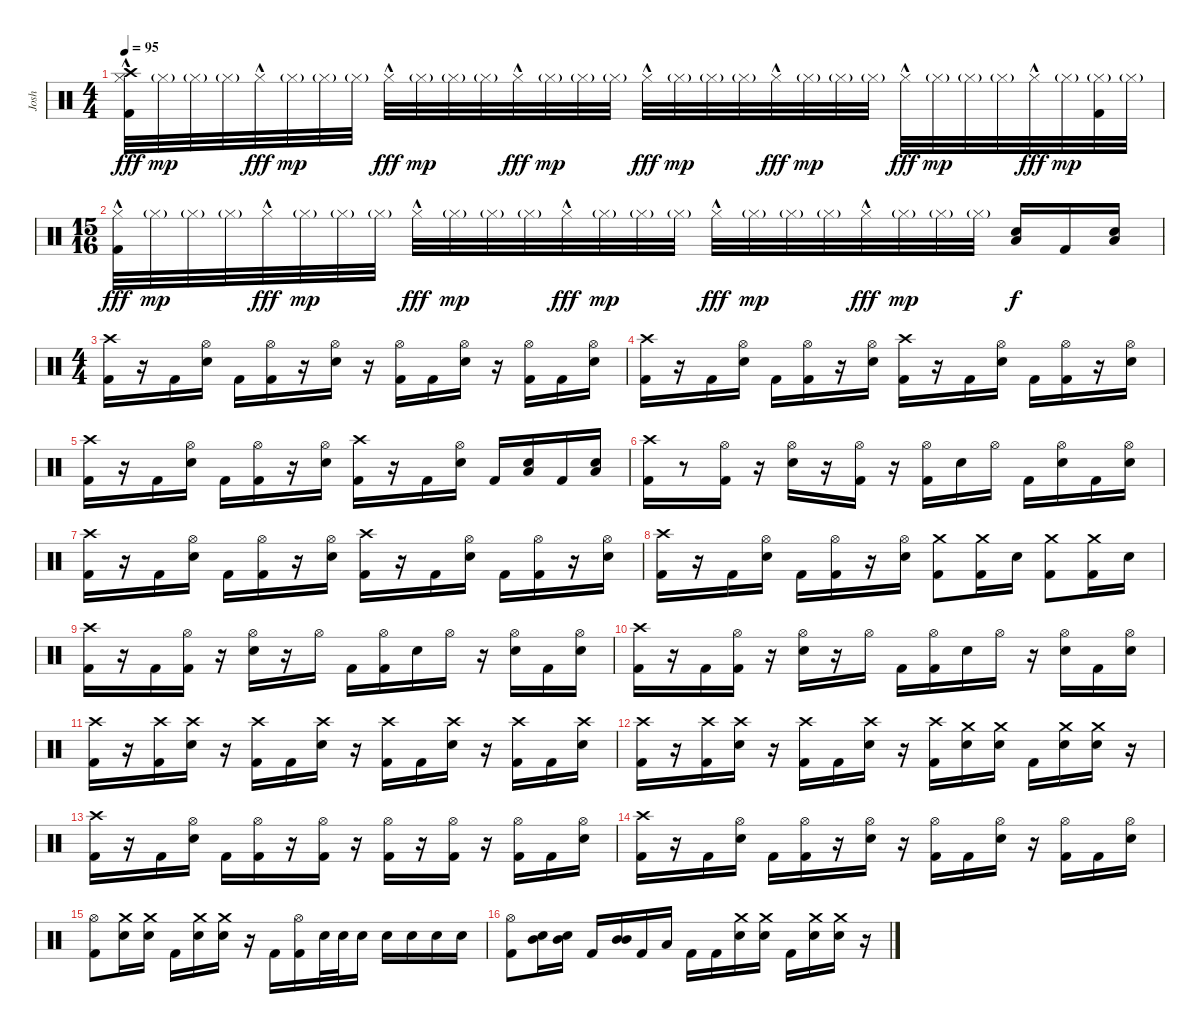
\track ("Josh" "Josh") {instrument percussion}
\staff {score}
\articulation defaults
\ts (4 4)
\tempo 95
\clef neutral
\ks c
("Crash high (hit)" "Hi-Hat (closed)"{hac} "Kick (hit) 2").32{dy fff} "Hi-Hat (closed)"{g}.32{dy mp} "Hi-Hat (closed)"{g}.32 "Hi-Hat (closed)"{g}.32 "Hi-Hat (closed)"{hac}.32{dy fff} "Hi-Hat (closed)"{g}.32{dy mp} "Hi-Hat (closed)"{g}.32 "Hi-Hat (closed)"{g}.32 "Hi-Hat (closed)"{hac}.32{dy fff} "Hi-Hat (closed)"{g}.32{dy mp} "Hi-Hat (closed)"{g}.32 "Hi-Hat (closed)"{g}.32 "Hi-Hat (closed)"{hac}.32{dy fff} "Hi-Hat (closed)"{g}.32{dy mp} "Hi-Hat (closed)"{g}.32 "Hi-Hat (closed)"{g}.32 "Hi-Hat (closed)"{hac}.32{dy fff} "Hi-Hat (closed)"{g}.32{dy mp} "Hi-Hat (closed)"{g}.32 "Hi-Hat (closed)"{g}.32 "Hi-Hat (closed)"{hac}.32{dy fff} "Hi-Hat (closed)"{g}.32{dy mp} "Hi-Hat (closed)"{g}.32 "Hi-Hat (closed)"{g}.32 "Hi-Hat (closed)"{hac}.32{dy fff} "Hi-Hat (closed)"{g}.32{dy mp} "Hi-Hat (closed)"{g}.32 "Hi-Hat (closed)"{g}.32 "Hi-Hat (closed)"{hac}.32{dy fff} "Hi-Hat (closed)"{g}.32{dy mp} ("Hi-Hat (closed)"{g} "Kick (hit) 2").32 "Hi-Hat (closed)"{g}.32 |
\ts (15 16)
("Hi-Hat (closed)"{hac} "Kick (hit) 2").32{dy fff} "Hi-Hat (closed)"{g}.32{dy mp} "Hi-Hat (closed)"{g}.32 "Hi-Hat (closed)"{g}.32 "Hi-Hat (closed)"{hac}.32{dy fff} "Hi-Hat (closed)"{g}.32{dy mp} "Hi-Hat (closed)"{g}.32 "Hi-Hat (closed)"{g}.32 "Hi-Hat (closed)"{hac}.32{dy fff} "Hi-Hat (closed)"{g}.32{dy mp} "Hi-Hat (closed)"{g}.32 "Hi-Hat (closed)"{g}.32 "Hi-Hat (closed)"{hac}.32{dy fff} "Hi-Hat (closed)"{g}.32{dy mp} "Hi-Hat (closed)"{g}.32 "Hi-Hat (closed)"{g}.32 "Hi-Hat (closed)"{hac}.32{dy fff} "Hi-Hat (closed)"{g}.32{dy mp} "Hi-Hat (closed)"{g}.32 "Hi-Hat (closed)"{g}.32 "Hi-Hat (closed)"{hac}.32{dy fff} "Hi-Hat (closed)"{g}.32{dy mp} "Hi-Hat (closed)"{g}.32 "Hi-Hat (closed)"{g}.32 ("Snare (hit) 2" "Low Tom (hit)").16{dy f} "Kick (hit) 2".16 ("Snare (hit) 2" "Low Tom (hit)").16 |
\ts (4 4)
("Crash high (hit)" "Kick (hit) 2").16 r.16 "Kick (hit) 2".16 ("Hi-Hat (open)" "Snare (hit) 2").16 "Kick (hit) 2".16 ("Hi-Hat (open)" "Kick (hit) 2").16 r.16 ("Hi-Hat (open)" "Snare (hit) 2").16 r.16 ("Hi-Hat (open)" "Kick (hit) 2").16 "Kick (hit) 2".16 ("Hi-Hat (open)" "Snare (hit) 2").16 r.16 ("Hi-Hat (open)" "Kick (hit) 2").16 "Kick (hit) 2".16 ("Hi-Hat (open)" "Snare (hit) 2").16 |
("Crash high (hit)" "Kick (hit) 2").16 r.16 "Kick (hit) 2".16 ("Hi-Hat (open)" "Snare (hit) 2").16 "Kick (hit) 2".16 ("Hi-Hat (open)" "Kick (hit) 2").16 r.16 ("Hi-Hat (open)" "Snare (hit) 2").16 ("Crash high (hit)" "Kick (hit) 2").16 r.16 "Kick (hit) 2".16 ("Hi-Hat (open)" "Snare (hit) 2").16 "Kick (hit) 2".16 ("Hi-Hat (open)" "Kick (hit) 2").16 r.16 ("Hi-Hat (open)" "Snare (hit) 2").16 |
("Crash high (hit)" "Kick (hit) 2").16 r.16 "Kick (hit) 2".16 ("Hi-Hat (open)" "Snare (hit) 2").16 "Kick (hit) 2".16 ("Hi-Hat (open)" "Kick (hit) 2").16 r.16 ("Hi-Hat (open)" "Snare (hit) 2").16 ("Crash high (hit)" "Kick (hit) 2").16 r.16 "Kick (hit) 2".16 ("Hi-Hat (open)" "Snare (hit) 2").16 "Kick (hit) 2".16 ("Low Tom (hit)" "Snare (hit) 2").16 "Kick (hit) 2".16 ("Low Tom (hit)" "Snare (hit) 2").16 |
("Crash high (hit)" "Kick (hit) 2").16 r.8 ("Hi-Hat (open)" "Kick (hit) 2").16 r.16 ("Hi-Hat (open)" "Snare (hit) 2").16 r.16 ("Hi-Hat (open)" "Kick (hit) 2").16 r.16 ("Hi-Hat (open)" "Kick (hit) 2").16 "Snare (hit) 2".16 "Hi-Hat (open)".16 "Kick (hit) 2".16 ("Hi-Hat (open)" "Snare (hit) 2").16 "Kick (hit) 2".16 ("Hi-Hat (open)" "Snare (hit) 2").16 |
("Crash high (hit)" "Kick (hit) 2").16 r.16 "Kick (hit) 2".16 ("Hi-Hat (open)" "Snare (hit) 2").16 "Kick (hit) 2".16 ("Hi-Hat (open)" "Kick (hit) 2").16 r.16 ("Hi-Hat (open)" "Snare (hit) 2").16 ("Crash high (hit)" "Kick (hit) 2").16 r.16 "Kick (hit) 2".16 ("Hi-Hat (open)" "Snare (hit) 2").16 "Kick (hit) 2".16 ("Hi-Hat (open)" "Kick (hit) 2").16 r.16 ("Hi-Hat (open)" "Snare (hit) 2").16 |
("Crash high (hit)" "Kick (hit) 2").16 r.16 "Kick (hit) 2".16 ("Hi-Hat (open)" "Snare (hit) 2").16 "Kick (hit) 2".16 ("Hi-Hat (open)" "Kick (hit) 2").16 r.16 ("Hi-Hat (open)" "Snare (hit) 2").16 ("Crash medium (hit)" "Kick (hit) 2").8 ("Crash medium (hit)" "Kick (hit) 2").16 "Snare (hit) 2".16 ("Crash medium (hit)" "Kick (hit) 2").8 ("Crash medium (hit)" "Kick (hit) 2").16 "Snare (hit) 2".16 |
("Crash high (hit)" "Kick (hit) 2").16 r.16 "Kick (hit) 2".16 ("Hi-Hat (open)" "Kick (hit) 2").16 r.16 ("Hi-Hat (open)" "Snare (hit) 2").16 r.16 "Hi-Hat (open)".16 "Kick (hit) 2".16 ("Hi-Hat (open)" "Kick (hit) 2").16 "Snare (hit) 2".16 "Hi-Hat (open)".16 r.16 ("Hi-Hat (open)" "Snare (hit) 2").16 "Kick (hit) 2".16 ("Hi-Hat (open)" "Snare (hit) 2").16 |
("Crash high (hit)" "Kick (hit) 2").16 r.16 "Kick (hit) 2".16 ("Hi-Hat (open)" "Kick (hit) 2").16 r.16 ("Hi-Hat (open)" "Snare (hit) 2").16 r.16 "Hi-Hat (open)".16 "Kick (hit) 2".16 ("Hi-Hat (open)" "Kick (hit) 2").16 "Snare (hit) 2".16 "Hi-Hat (open)".16 r.16 ("Hi-Hat (open)" "Snare (hit) 2").16 "Kick (hit) 2".16 ("Hi-Hat (open)" "Snare (hit) 2").16 |
("Crash high (hit)" "Kick (hit) 2").16 r.16 ("Crash high (hit)" "Kick (hit) 2").16 ("Crash high (hit)" "Snare (hit) 2").16 r.16 ("Crash high (hit)" "Kick (hit) 2").16 "Kick (hit) 2".16 ("Crash high (hit)" "Snare (hit) 2").16 r.16 ("Crash high (hit)" "Kick (hit) 2").16 "Kick (hit) 2".16 ("Crash high (hit)" "Snare (hit) 2").16 r.16 ("Crash high (hit)" "Kick (hit) 2").16 "Kick (hit) 2".16 ("Crash high (hit)" "Snare (hit) 2").16 |
("Crash high (hit)" "Kick (hit) 2").16 r.16 ("Crash high (hit)" "Kick (hit) 2").16 ("Crash high (hit)" "Snare (hit) 2").16 r.16 ("Crash high (hit)" "Kick (hit) 2").16 "Kick (hit) 2".16 ("Crash high (hit)" "Snare (hit) 2").16 r.16 ("Crash high (hit)" "Kick (hit) 2").16 ("Crash medium (hit)" "Snare (hit) 2").16 ("Crash medium (hit)" "Snare (hit) 2").16 "Kick (hit) 2".16 ("Crash medium (hit)" "Snare (hit) 2").16 ("Crash medium (hit)" "Snare (hit) 2").16 r.16 |
("Crash high (hit)" "Kick (hit) 2").16 r.16 "Kick (hit) 2".16 ("Hi-Hat (open)" "Snare (hit) 2").16 "Kick (hit) 2".16 ("Hi-Hat (open)" "Kick (hit) 2").16 r.16 ("Hi-Hat (open)" "Kick (hit) 2").16 r.16 ("Hi-Hat (open)" "Kick (hit) 2").16 r.16 ("Hi-Hat (open)" "Kick (hit) 2").16 r.16 ("Hi-Hat (open)" "Kick (hit) 2").16 "Kick (hit) 2".16 ("Hi-Hat (open)" "Snare (hit) 2").16 |
("Crash high (hit)" "Kick (hit) 2").16 r.16 "Kick (hit) 2".16 ("Hi-Hat (open)" "Snare (hit) 2").16 "Kick (hit) 2".16 ("Hi-Hat (open)" "Kick (hit) 2").16 r.16 ("Hi-Hat (open)" "Snare (hit) 2").16 r.16 ("Hi-Hat (open)" "Kick (hit) 2").16 "Kick (hit) 2".16 ("Hi-Hat (open)" "Snare (hit) 2").16 r.16 ("Hi-Hat (open)" "Kick (hit) 2").16 "Kick (hit) 2".16 ("Hi-Hat (open)" "Snare (hit) 2").16 |
("Hi-Hat (open)" "Kick (hit) 2").8 ("Crash medium (hit)" "Snare (hit) 2").16 ("Crash medium (hit)" "Snare (hit) 2").16 "Kick (hit) 2".16 ("Crash medium (hit)" "Snare (hit) 2").16 ("Crash medium (hit)" "Snare (hit) 2").16 r.16 "Kick (hit) 2".16 ("Hi-Hat (open)" "Kick (hit) 2").16 "Snare (hit) 2".32 "Snare (hit) 2".32 "Snare (hit) 2".16 "Snare (hit) 2".16 "Snare (hit) 2".16 "Snare (hit) 2".16 "Snare (hit) 2".16 |
("Hi-Hat (open)" "Kick (hit) 2").8 ("Mid Tom (hit)" "Snare (hit) 2").16 ("Mid Tom (hit)" "Snare (hit) 2").16 "Kick (hit) 2".16 ("Mid Tom (hit)" "Mid Tom (hit)").16 "Kick (hit) 2".16 "Low Tom (hit)".16 "Kick (hit) 2".16 "Kick (hit) 2".16 ("Crash medium (hit)" "Snare (hit) 2").16 ("Crash medium (hit)" "Snare (hit) 2").16 "Kick (hit) 2".16 ("Crash medium (hit)" "Snare (hit) 2").16 ("Crash medium (hit)" "Snare (hit) 2").16 r.16
